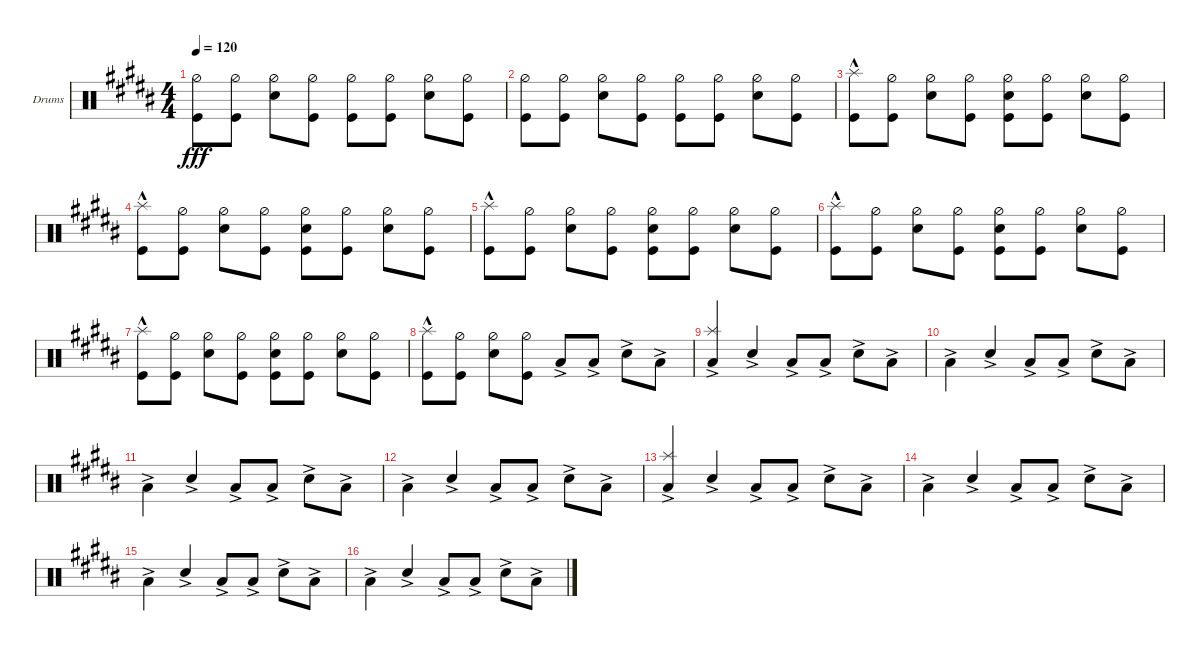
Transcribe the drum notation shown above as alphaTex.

\defaultSystemsLayout 4
\bracketExtendMode groupsimilarinstruments
\firstSystemTrackNameOrientation horizontal
\otherSystemsTrackNameOrientation horizontal
\track ("Drumkit" "Drums") {instrument percussion}
\staff {score}
\articulation defaults
\ts (4 4)
\tempo 120
\clef neutral
\ks b
("Kick (hit)" "Hi-Hat (half)").8{dy fff} ("Kick (hit)" "Hi-Hat (half)").8 ("Snare (hit) 2" "Hi-Hat (half)").8 ("Kick (hit)" "Hi-Hat (half)").8 ("Kick (hit)" "Hi-Hat (half)").8 ("Kick (hit)" "Hi-Hat (half)").8 ("Snare (hit) 2" "Hi-Hat (half)").8 ("Kick (hit)" "Hi-Hat (half)").8 |
("Kick (hit)" "Hi-Hat (half)").8 ("Kick (hit)" "Hi-Hat (half)").8 ("Snare (hit) 2" "Hi-Hat (half)").8 ("Kick (hit)" "Hi-Hat (half)").8 ("Kick (hit)" "Hi-Hat (half)").8 ("Kick (hit)" "Hi-Hat (half)").8 ("Snare (hit) 2" "Hi-Hat (half)").8 ("Kick (hit)" "Hi-Hat (half)").8 |
("Kick (hit)" "Splash (hit)"{hac}).8 ("Kick (hit)" "Hi-Hat (half)").8 ("Snare (hit) 2" "Hi-Hat (half)").8 ("Kick (hit)" "Hi-Hat (half)").8 ("Kick (hit)" "Hi-Hat (half)" "Snare (hit) 2").8 ("Kick (hit)" "Hi-Hat (half)").8 ("Snare (hit) 2" "Hi-Hat (half)").8 ("Kick (hit)" "Hi-Hat (half)").8 |
("Kick (hit)" "Splash (hit)"{hac}).8 ("Kick (hit)" "Hi-Hat (half)").8 ("Snare (hit) 2" "Hi-Hat (half)").8 ("Kick (hit)" "Hi-Hat (half)").8 ("Kick (hit)" "Hi-Hat (half)" "Snare (hit) 2").8 ("Kick (hit)" "Hi-Hat (half)").8 ("Snare (hit) 2" "Hi-Hat (half)").8 ("Kick (hit)" "Hi-Hat (half)").8 |
("Kick (hit)" "Splash (hit)"{hac}).8 ("Kick (hit)" "Hi-Hat (half)").8 ("Snare (hit) 2" "Hi-Hat (half)").8 ("Kick (hit)" "Hi-Hat (half)").8 ("Kick (hit)" "Hi-Hat (half)" "Snare (hit) 2").8 ("Kick (hit)" "Hi-Hat (half)").8 ("Snare (hit) 2" "Hi-Hat (half)").8 ("Kick (hit)" "Hi-Hat (half)").8 |
("Kick (hit)" "Splash (hit)"{hac}).8 ("Kick (hit)" "Hi-Hat (half)").8 ("Snare (hit) 2" "Hi-Hat (half)").8 ("Kick (hit)" "Hi-Hat (half)").8 ("Kick (hit)" "Hi-Hat (half)" "Snare (hit) 2").8 ("Kick (hit)" "Hi-Hat (half)").8 ("Snare (hit) 2" "Hi-Hat (half)").8 ("Kick (hit)" "Hi-Hat (half)").8 |
("Kick (hit)" "Splash (hit)"{hac}).8 ("Kick (hit)" "Hi-Hat (half)").8 ("Snare (hit) 2" "Hi-Hat (half)").8 ("Kick (hit)" "Hi-Hat (half)").8 ("Kick (hit)" "Hi-Hat (half)" "Snare (hit) 2").8 ("Kick (hit)" "Hi-Hat (half)").8 ("Snare (hit) 2" "Hi-Hat (half)").8 ("Kick (hit)" "Hi-Hat (half)").8 |
("Kick (hit)" "Splash (hit)"{hac}).8 ("Kick (hit)" "Hi-Hat (half)").8 ("Snare (hit) 2" "Hi-Hat (half)").8 ("Kick (hit)" "Hi-Hat (half)").8 "Low Tom (hit)"{ac}.8 "Low Tom (hit)"{ac}.8 "Snare (hit) 2"{ac}.8 "Low Tom (hit)"{ac}.8 |
("Low Tom (hit)"{ac} "Splash (hit)").4 "Snare (hit) 2"{ac}.4{beam invert} "Low Tom (hit)"{ac}.8 "Low Tom (hit)"{ac}.8 "Snare (hit) 2"{ac}.8 "Low Tom (hit)"{ac}.8 |
"Low Tom (hit)"{ac}.4 "Snare (hit) 2"{ac}.4{beam invert} "Low Tom (hit)"{ac}.8 "Low Tom (hit)"{ac}.8 "Snare (hit) 2"{ac}.8 "Low Tom (hit)"{ac}.8 |
"Low Tom (hit)"{ac}.4 "Snare (hit) 2"{ac}.4{beam invert} "Low Tom (hit)"{ac}.8 "Low Tom (hit)"{ac}.8 "Snare (hit) 2"{ac}.8 "Low Tom (hit)"{ac}.8 |
"Low Tom (hit)"{ac}.4 "Snare (hit) 2"{ac}.4{beam invert} "Low Tom (hit)"{ac}.8 "Low Tom (hit)"{ac}.8 "Snare (hit) 2"{ac}.8 "Low Tom (hit)"{ac}.8 |
("Low Tom (hit)"{ac} "Splash (hit)").4 "Snare (hit) 2"{ac}.4{beam invert} "Low Tom (hit)"{ac}.8 "Low Tom (hit)"{ac}.8 "Snare (hit) 2"{ac}.8 "Low Tom (hit)"{ac}.8 |
"Low Tom (hit)"{ac}.4 "Snare (hit) 2"{ac}.4{beam invert} "Low Tom (hit)"{ac}.8 "Low Tom (hit)"{ac}.8 "Snare (hit) 2"{ac}.8 "Low Tom (hit)"{ac}.8 |
"Low Tom (hit)"{ac}.4 "Snare (hit) 2"{ac}.4{beam invert} "Low Tom (hit)"{ac}.8 "Low Tom (hit)"{ac}.8 "Snare (hit) 2"{ac}.8 "Low Tom (hit)"{ac}.8 |
"Low Tom (hit)"{ac}.4 "Snare (hit) 2"{ac}.4{beam invert} "Low Tom (hit)"{ac}.8 "Low Tom (hit)"{ac}.8 "Snare (hit) 2"{ac}.8 "Low Tom (hit)"{ac}.8
